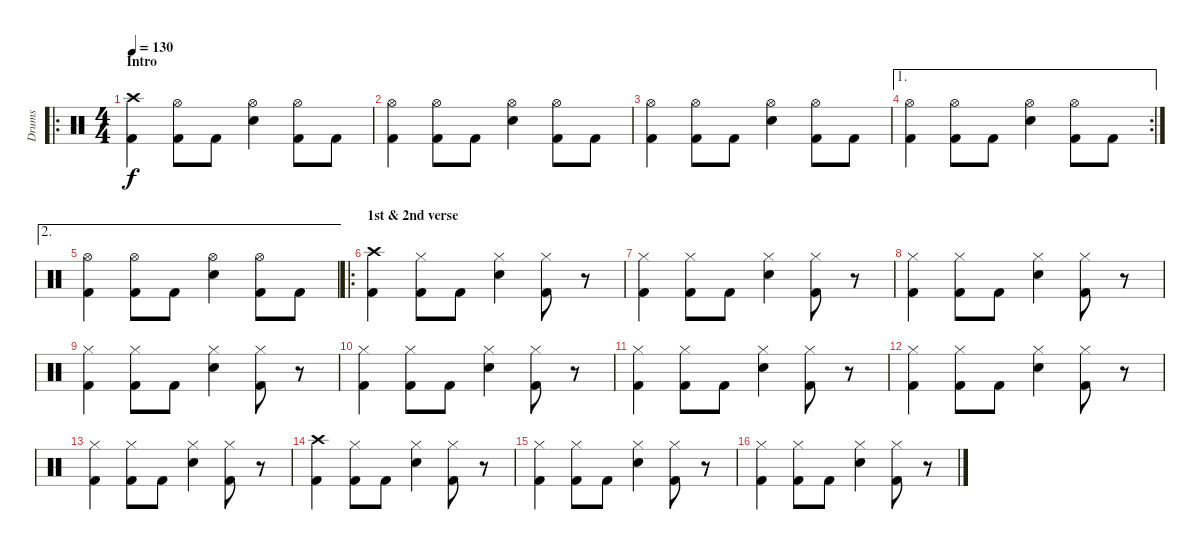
\track ("Drums" "Drums") {instrument percussion}
\staff {score}
\articulation defaults
\ro
\ts (4 4)
\section ("" "Intro")
\tempo 130
\clef neutral
\ks c
("Crash high (hit)" "Kick (hit) 2").4{dy f} ("Hi-Hat (open)" "Kick (hit) 2").8 "Kick (hit) 2".8 ("Hi-Hat (open)" "Electric Snare (hit)").4 ("Hi-Hat (open)" "Kick (hit) 2").8 "Kick (hit) 2".8 |
("Hi-Hat (open)" "Kick (hit) 2").4 ("Hi-Hat (open)" "Kick (hit) 2").8 "Kick (hit) 2".8 ("Hi-Hat (open)" "Electric Snare (hit)").4 ("Hi-Hat (open)" "Kick (hit) 2").8 "Kick (hit) 2".8 |
("Hi-Hat (open)" "Kick (hit) 2").4 ("Hi-Hat (open)" "Kick (hit) 2").8 "Kick (hit) 2".8 ("Hi-Hat (open)" "Electric Snare (hit)").4 ("Hi-Hat (open)" "Kick (hit) 2").8 "Kick (hit) 2".8 |
\ae 1
\rc 2
("Hi-Hat (open)" "Kick (hit) 2").4 ("Hi-Hat (open)" "Kick (hit) 2").8 "Kick (hit) 2".8 ("Hi-Hat (open)" "Electric Snare (hit)").4 ("Hi-Hat (open)" "Kick (hit) 2").8 "Kick (hit) 2".8 |
\ae 2
("Hi-Hat (open)" "Kick (hit) 2").4 ("Hi-Hat (open)" "Kick (hit) 2").8 "Kick (hit) 2".8 ("Hi-Hat (open)" "Electric Snare (hit)").4 ("Hi-Hat (open)" "Kick (hit) 2").8 "Kick (hit) 2".8 |
\ro
\section ("" "1st & 2nd verse")
("Crash high (hit)" "Kick (hit) 2").4 ("Hi-Hat (closed)" "Kick (hit) 2").8 "Kick (hit) 2".8 ("Hi-Hat (closed)" "Electric Snare (hit)").4 ("Hi-Hat (closed)" "Kick (hit) 2").8 r.8 |
("Hi-Hat (closed)" "Kick (hit) 2").4 ("Hi-Hat (closed)" "Kick (hit) 2").8 "Kick (hit) 2".8 ("Hi-Hat (closed)" "Electric Snare (hit)").4 ("Hi-Hat (closed)" "Kick (hit) 2").8 r.8 |
("Hi-Hat (closed)" "Kick (hit) 2").4 ("Hi-Hat (closed)" "Kick (hit) 2").8 "Kick (hit) 2".8 ("Hi-Hat (closed)" "Electric Snare (hit)").4 ("Hi-Hat (closed)" "Kick (hit) 2").8 r.8 |
("Hi-Hat (closed)" "Kick (hit) 2").4 ("Hi-Hat (closed)" "Kick (hit) 2").8 "Kick (hit) 2".8 ("Hi-Hat (closed)" "Electric Snare (hit)").4 ("Hi-Hat (closed)" "Kick (hit) 2").8 r.8 |
("Hi-Hat (closed)" "Kick (hit) 2").4 ("Hi-Hat (closed)" "Kick (hit) 2").8 "Kick (hit) 2".8 ("Hi-Hat (closed)" "Electric Snare (hit)").4 ("Hi-Hat (closed)" "Kick (hit) 2").8 r.8 |
("Hi-Hat (closed)" "Kick (hit) 2").4 ("Hi-Hat (closed)" "Kick (hit) 2").8 "Kick (hit) 2".8 ("Hi-Hat (closed)" "Electric Snare (hit)").4 ("Hi-Hat (closed)" "Kick (hit) 2").8 r.8 |
("Hi-Hat (closed)" "Kick (hit) 2").4 ("Hi-Hat (closed)" "Kick (hit) 2").8 "Kick (hit) 2".8 ("Hi-Hat (closed)" "Electric Snare (hit)").4 ("Hi-Hat (closed)" "Kick (hit) 2").8 r.8 |
("Hi-Hat (closed)" "Kick (hit) 2").4 ("Hi-Hat (closed)" "Kick (hit) 2").8 "Kick (hit) 2".8 ("Hi-Hat (closed)" "Electric Snare (hit)").4 ("Hi-Hat (closed)" "Kick (hit) 2").8 r.8 |
("Crash high (hit)" "Kick (hit) 2").4 ("Hi-Hat (closed)" "Kick (hit) 2").8 "Kick (hit) 2".8 ("Hi-Hat (closed)" "Electric Snare (hit)").4 ("Hi-Hat (closed)" "Kick (hit) 2").8 r.8 |
("Hi-Hat (closed)" "Kick (hit) 2").4 ("Hi-Hat (closed)" "Kick (hit) 2").8 "Kick (hit) 2".8 ("Hi-Hat (closed)" "Electric Snare (hit)").4 ("Hi-Hat (closed)" "Kick (hit) 2").8 r.8 |
("Hi-Hat (closed)" "Kick (hit) 2").4 ("Hi-Hat (closed)" "Kick (hit) 2").8 "Kick (hit) 2".8 ("Hi-Hat (closed)" "Electric Snare (hit)").4 ("Hi-Hat (closed)" "Kick (hit) 2").8 r.8
